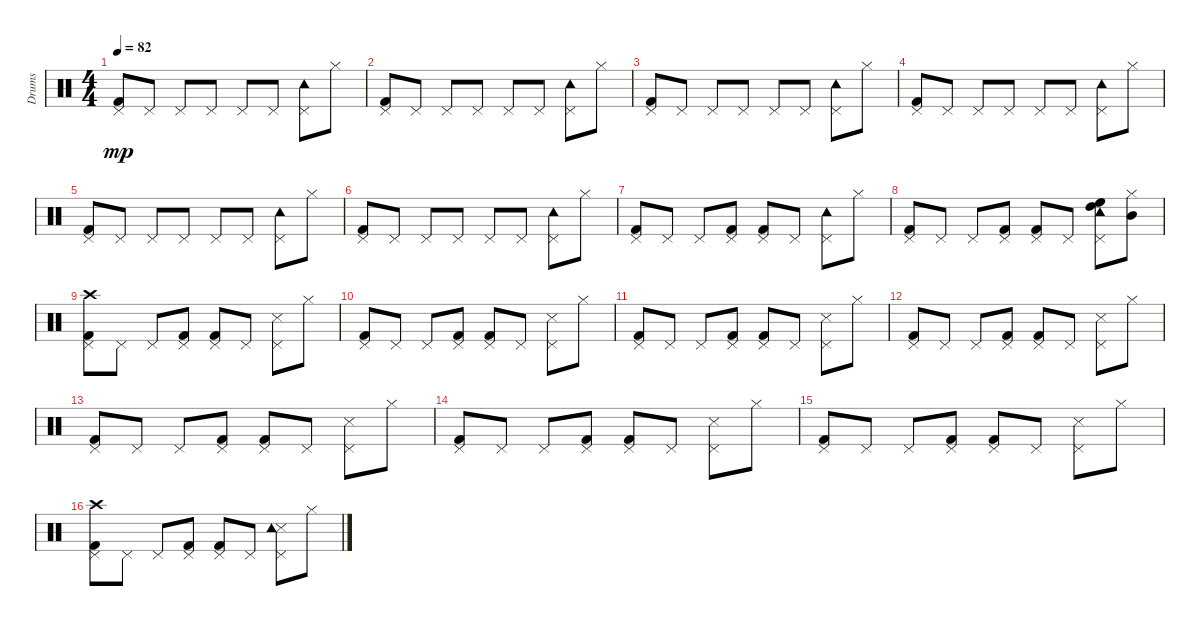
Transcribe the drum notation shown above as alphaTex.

\track ("Drums" "Drums") {instrument percussion}
\staff {score}
\articulation defaults
\ts (4 4)
\tempo 82
\clef neutral
\ks c
("Kick (hit) 2" "Pedal Hi-Hat (hit)").8{dy mp} "Pedal Hi-Hat (hit)".8 "Pedal Hi-Hat (hit)".8 "Pedal Hi-Hat (hit)".8 "Pedal Hi-Hat (hit)".8 "Pedal Hi-Hat (hit)".8 ("Tambourine (hit)" "Pedal Hi-Hat (hit)").8 "Hi-Hat (closed)".8 |
("Kick (hit) 2" "Pedal Hi-Hat (hit)").8 "Pedal Hi-Hat (hit)".8 "Pedal Hi-Hat (hit)".8 "Pedal Hi-Hat (hit)".8 "Pedal Hi-Hat (hit)".8 "Pedal Hi-Hat (hit)".8 ("Tambourine (hit)" "Pedal Hi-Hat (hit)").8 "Hi-Hat (closed)".8 |
("Kick (hit) 2" "Pedal Hi-Hat (hit)").8 "Pedal Hi-Hat (hit)".8 "Pedal Hi-Hat (hit)".8 "Pedal Hi-Hat (hit)".8 "Pedal Hi-Hat (hit)".8 "Pedal Hi-Hat (hit)".8 ("Tambourine (hit)" "Pedal Hi-Hat (hit)").8 "Hi-Hat (closed)".8 |
("Kick (hit) 2" "Pedal Hi-Hat (hit)").8 "Pedal Hi-Hat (hit)".8 "Pedal Hi-Hat (hit)".8 "Pedal Hi-Hat (hit)".8 "Pedal Hi-Hat (hit)".8 "Pedal Hi-Hat (hit)".8 ("Tambourine (hit)" "Pedal Hi-Hat (hit)").8 "Hi-Hat (closed)".8 |
("Kick (hit) 2" "Pedal Hi-Hat (hit)").8 "Pedal Hi-Hat (hit)".8 "Pedal Hi-Hat (hit)".8 "Pedal Hi-Hat (hit)".8 "Pedal Hi-Hat (hit)".8 "Pedal Hi-Hat (hit)".8 ("Tambourine (hit)" "Pedal Hi-Hat (hit)").8 "Hi-Hat (closed)".8 |
("Kick (hit) 2" "Pedal Hi-Hat (hit)").8 "Pedal Hi-Hat (hit)".8 "Pedal Hi-Hat (hit)".8 "Pedal Hi-Hat (hit)".8 "Pedal Hi-Hat (hit)".8 "Pedal Hi-Hat (hit)".8 ("Tambourine (hit)" "Pedal Hi-Hat (hit)").8 "Hi-Hat (closed)".8 |
("Kick (hit) 2" "Pedal Hi-Hat (hit)").8 "Pedal Hi-Hat (hit)".8 "Pedal Hi-Hat (hit)".8 ("Kick (hit) 2" "Pedal Hi-Hat (hit)").8 ("Kick (hit) 2" "Pedal Hi-Hat (hit)").8 "Pedal Hi-Hat (hit)".8 ("Tambourine (hit)" "Pedal Hi-Hat (hit)").8 "Hi-Hat (closed)".8 |
("Kick (hit) 2" "Pedal Hi-Hat (hit)").8 "Pedal Hi-Hat (hit)".8 "Pedal Hi-Hat (hit)".8 ("Kick (hit) 2" "Pedal Hi-Hat (hit)").8 ("Kick (hit) 2" "Pedal Hi-Hat (hit)").8 "Pedal Hi-Hat (hit)".8 ("Tambourine (hit)" "High Floor Tom (hit)" "Pedal Hi-Hat (hit)" "High Tom (hit)").8 ("Mid Tom (hit)" "Hi-Hat (closed)").8 |
("Kick (hit) 2" "Crash high (hit)" "Pedal Hi-Hat (hit)").8 "Pedal Hi-Hat (hit)".8 "Pedal Hi-Hat (hit)".8 ("Kick (hit) 2" "Pedal Hi-Hat (hit)").8 ("Kick (hit) 2" "Pedal Hi-Hat (hit)").8 "Pedal Hi-Hat (hit)".8 ("Snare (side stick) 3" "Pedal Hi-Hat (hit)").8 "Hi-Hat (closed)".8 |
("Kick (hit) 2" "Pedal Hi-Hat (hit)").8 "Pedal Hi-Hat (hit)".8 "Pedal Hi-Hat (hit)".8 ("Kick (hit) 2" "Pedal Hi-Hat (hit)").8 ("Kick (hit) 2" "Pedal Hi-Hat (hit)").8 "Pedal Hi-Hat (hit)".8 ("Snare (side stick) 3" "Pedal Hi-Hat (hit)").8 "Hi-Hat (closed)".8 |
("Kick (hit) 2" "Pedal Hi-Hat (hit)").8 "Pedal Hi-Hat (hit)".8 "Pedal Hi-Hat (hit)".8 ("Kick (hit) 2" "Pedal Hi-Hat (hit)").8 ("Kick (hit) 2" "Pedal Hi-Hat (hit)").8 "Pedal Hi-Hat (hit)".8 ("Snare (side stick) 3" "Pedal Hi-Hat (hit)").8 "Hi-Hat (closed)".8 |
("Kick (hit) 2" "Pedal Hi-Hat (hit)").8 "Pedal Hi-Hat (hit)".8 "Pedal Hi-Hat (hit)".8 ("Kick (hit) 2" "Pedal Hi-Hat (hit)").8 ("Kick (hit) 2" "Pedal Hi-Hat (hit)").8 "Pedal Hi-Hat (hit)".8 ("Snare (side stick) 3" "Pedal Hi-Hat (hit)").8 "Hi-Hat (closed)".8 |
("Kick (hit) 2" "Pedal Hi-Hat (hit)").8 "Pedal Hi-Hat (hit)".8 "Pedal Hi-Hat (hit)".8 ("Kick (hit) 2" "Pedal Hi-Hat (hit)").8 ("Kick (hit) 2" "Pedal Hi-Hat (hit)").8 "Pedal Hi-Hat (hit)".8 ("Snare (side stick) 3" "Pedal Hi-Hat (hit)").8 "Hi-Hat (closed)".8 |
("Kick (hit) 2" "Pedal Hi-Hat (hit)").8 "Pedal Hi-Hat (hit)".8 "Pedal Hi-Hat (hit)".8 ("Kick (hit) 2" "Pedal Hi-Hat (hit)").8 ("Kick (hit) 2" "Pedal Hi-Hat (hit)").8 "Pedal Hi-Hat (hit)".8 ("Snare (side stick) 3" "Pedal Hi-Hat (hit)").8 "Hi-Hat (closed)".8 |
("Kick (hit) 2" "Pedal Hi-Hat (hit)").8 "Pedal Hi-Hat (hit)".8 "Pedal Hi-Hat (hit)".8 ("Kick (hit) 2" "Pedal Hi-Hat (hit)").8 ("Kick (hit) 2" "Pedal Hi-Hat (hit)").8 "Pedal Hi-Hat (hit)".8 ("Snare (side stick) 3" "Pedal Hi-Hat (hit)").8 "Hi-Hat (closed)".8 |
("Kick (hit) 2" "Crash high (hit)" "Pedal Hi-Hat (hit)").8 "Pedal Hi-Hat (hit)".8 "Pedal Hi-Hat (hit)".8 ("Kick (hit) 2" "Pedal Hi-Hat (hit)").8 ("Kick (hit) 2" "Pedal Hi-Hat (hit)").8 "Pedal Hi-Hat (hit)".8 ("Snare (side stick) 3" "Tambourine (hit)" "Pedal Hi-Hat (hit)").8 "Hi-Hat (closed)".8
